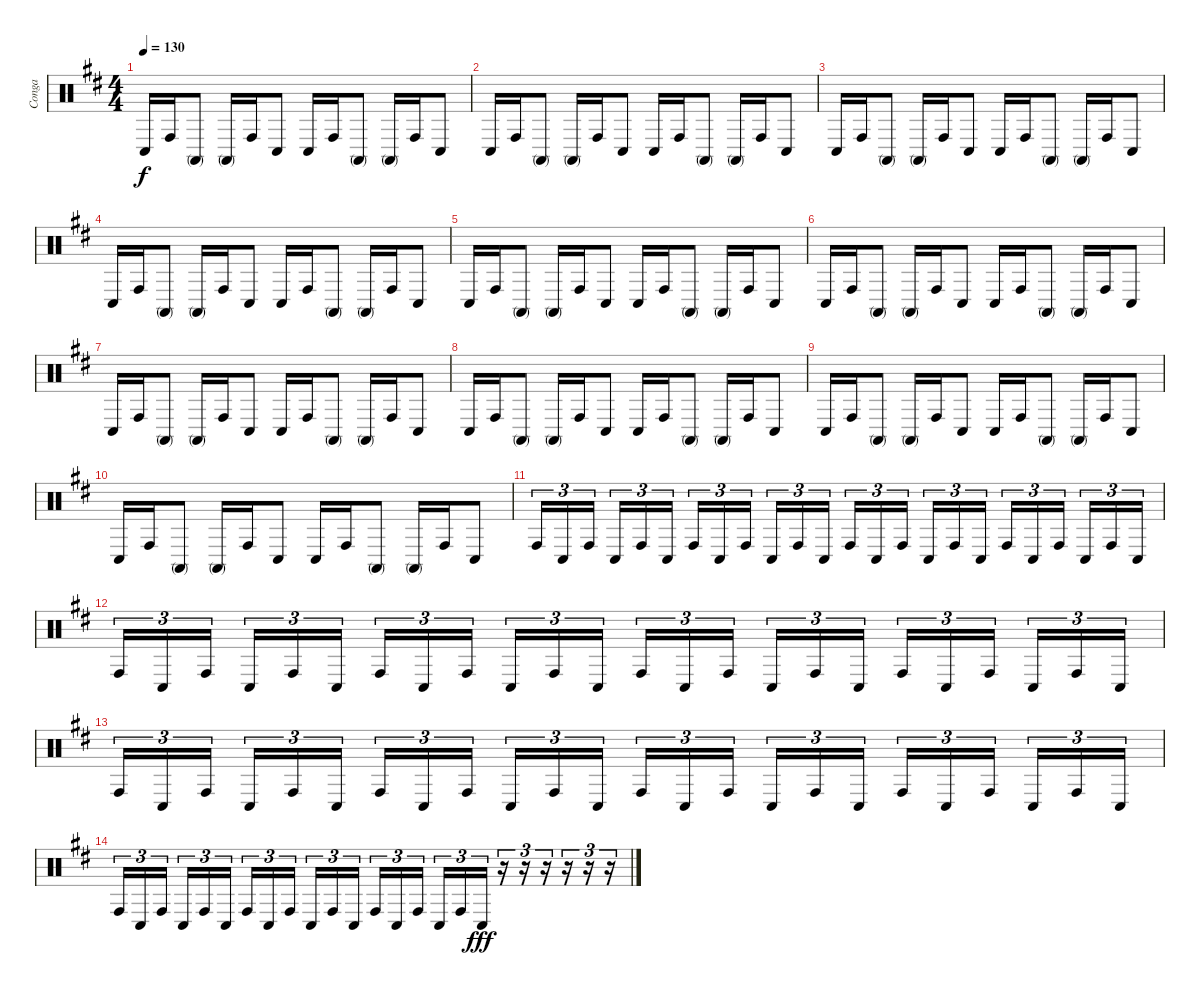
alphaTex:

\track ("Conga" "Conga") {instrument percussion}
\staff {score}
\articulation defaults
\ts (4 4)
\tempo 130
\clef neutral
\ks d "Conga low (hit)".16{dy f} "Conga high (hit)".16 "Conga high (mute)".8 "Conga high (mute)".16 "Conga high (hit)".16 "Conga low (hit)".8 "Conga low (hit)".16 "Conga high (hit)".16 "Conga high (mute)".8 "Conga high (mute)".16 "Conga high (hit)".16 "Conga low (hit)".8
|
"Conga low (hit)".16 "Conga high (hit)".16 "Conga high (mute)".8 "Conga high (mute)".16 "Conga high (hit)".16 "Conga low (hit)".8 "Conga low (hit)".16 "Conga high (hit)".16 "Conga high (mute)".8 "Conga high (mute)".16 "Conga high (hit)".16 "Conga low (hit)".8 |
"Conga low (hit)".16 "Conga high (hit)".16 "Conga high (mute)".8 "Conga high (mute)".16 "Conga high (hit)".16 "Conga low (hit)".8 "Conga low (hit)".16 "Conga high (hit)".16 "Conga high (mute)".8 "Conga high (mute)".16 "Conga high (hit)".16 "Conga low (hit)".8 |
"Conga low (hit)".16 "Conga high (hit)".16 "Conga high (mute)".8 "Conga high (mute)".16 "Conga high (hit)".16 "Conga low (hit)".8 "Conga low (hit)".16 "Conga high (hit)".16 "Conga high (mute)".8 "Conga high (mute)".16 "Conga high (hit)".16 "Conga low (hit)".8 |
"Conga low (hit)".16 "Conga high (hit)".16 "Conga high (mute)".8 "Conga high (mute)".16 "Conga high (hit)".16 "Conga low (hit)".8 "Conga low (hit)".16 "Conga high (hit)".16 "Conga high (mute)".8 "Conga high (mute)".16 "Conga high (hit)".16 "Conga low (hit)".8 |
"Conga low (hit)".16 "Conga high (hit)".16 "Conga high (mute)".8 "Conga high (mute)".16 "Conga high (hit)".16 "Conga low (hit)".8 "Conga low (hit)".16 "Conga high (hit)".16 "Conga high (mute)".8 "Conga high (mute)".16 "Conga high (hit)".16 "Conga low (hit)".8 |
"Conga low (hit)".16 "Conga high (hit)".16 "Conga high (mute)".8 "Conga high (mute)".16 "Conga high (hit)".16 "Conga low (hit)".8 "Conga low (hit)".16 "Conga high (hit)".16 "Conga high (mute)".8 "Conga high (mute)".16 "Conga high (hit)".16 "Conga low (hit)".8 |
"Conga low (hit)".16 "Conga high (hit)".16 "Conga high (mute)".8 "Conga high (mute)".16 "Conga high (hit)".16 "Conga low (hit)".8 "Conga low (hit)".16 "Conga high (hit)".16 "Conga high (mute)".8 "Conga high (mute)".16 "Conga high (hit)".16 "Conga low (hit)".8 |
"Conga low (hit)".16 "Conga high (hit)".16 "Conga high (mute)".8 "Conga high (mute)".16 "Conga high (hit)".16 "Conga low (hit)".8 "Conga low (hit)".16 "Conga high (hit)".16 "Conga high (mute)".8 "Conga high (mute)".16 "Conga high (hit)".16 "Conga low (hit)".8 |
"Conga low (hit)".16 "Conga high (hit)".16 "Conga high (mute)".8 "Conga high (mute)".16 "Conga high (hit)".16 "Conga low (hit)".8 "Conga low (hit)".16 "Conga high (hit)".16 "Conga high (mute)".8 "Conga high (mute)".16 "Conga high (hit)".16 "Conga low (hit)".8 |
"Conga high (hit)".16{tu (3 2)} "Conga low (hit)".16{tu (3 2)} "Conga high (hit)".16{tu (3 2)} "Conga low (hit)".16{tu (3 2)} "Conga high (hit)".16{tu (3 2)} "Conga low (hit)".16{tu (3 2)} "Conga high (hit)".16{tu (3 2)} "Conga low (hit)".16{tu (3 2)} "Conga high (hit)".16{tu (3 2)} "Conga low (hit)".16{tu (3 2)} "Conga high (hit)".16{tu (3 2)} "Conga low (hit)".16{tu (3 2)} "Conga high (hit)".16{tu (3 2)} "Conga low (hit)".16{tu (3 2)} "Conga high (hit)".16{tu (3 2)} "Conga low (hit)".16{tu (3 2)} "Conga high (hit)".16{tu (3 2)} "Conga low (hit)".16{tu (3 2)} "Conga high (hit)".16{tu (3 2)} "Conga low (hit)".16{tu (3 2)} "Conga high (hit)".16{tu (3 2)} "Conga low (hit)".16{tu (3 2)} "Conga high (hit)".16{tu (3 2)} "Conga low (hit)".16{tu (3 2)} |
"Conga high (hit)".16{tu (3 2)} "Conga low (hit)".16{tu (3 2)} "Conga high (hit)".16{tu (3 2)} "Conga low (hit)".16{tu (3 2)} "Conga high (hit)".16{tu (3 2)} "Conga low (hit)".16{tu (3 2)} "Conga high (hit)".16{tu (3 2)} "Conga low (hit)".16{tu (3 2)} "Conga high (hit)".16{tu (3 2)} "Conga low (hit)".16{tu (3 2)} "Conga high (hit)".16{tu (3 2)} "Conga low (hit)".16{tu (3 2)} "Conga high (hit)".16{tu (3 2)} "Conga low (hit)".16{tu (3 2)} "Conga high (hit)".16{tu (3 2)} "Conga low (hit)".16{tu (3 2)} "Conga high (hit)".16{tu (3 2)} "Conga low (hit)".16{tu (3 2)} "Conga high (hit)".16{tu (3 2)} "Conga low (hit)".16{tu (3 2)} "Conga high (hit)".16{tu (3 2)} "Conga low (hit)".16{tu (3 2)} "Conga high (hit)".16{tu (3 2)} "Conga low (hit)".16{tu (3 2)} |
"Conga high (hit)".16{tu (3 2)} "Conga low (hit)".16{tu (3 2)} "Conga high (hit)".16{tu (3 2)} "Conga low (hit)".16{tu (3 2)} "Conga high (hit)".16{tu (3 2)} "Conga low (hit)".16{tu (3 2)} "Conga high (hit)".16{tu (3 2)} "Conga low (hit)".16{tu (3 2)} "Conga high (hit)".16{tu (3 2)} "Conga low (hit)".16{tu (3 2) volume 10} "Conga high (hit)".16{tu (3 2)} "Conga low (hit)".16{tu (3 2)} "Conga high (hit)".16{tu (3 2)} "Conga low (hit)".16{tu (3 2)} "Conga high (hit)".16{tu (3 2)} "Conga low (hit)".16{tu (3 2)} "Conga high (hit)".16{tu (3 2)} "Conga low (hit)".16{tu (3 2)} "Conga high (hit)".16{tu (3 2)} "Conga low (hit)".16{tu (3 2)} "Conga high (hit)".16{tu (3 2)} "Conga low (hit)".16{tu (3 2)} "Conga high (hit)".16{tu (3 2)} "Conga low (hit)".16{tu (3 2)} |
"Conga high (hit)".16{tu (3 2) volume 5} "Conga low (hit)".16{tu (3 2)} "Conga high (hit)".16{tu (3 2)} "Conga low (hit)".16{tu (3 2)} "Conga high (hit)".16{tu (3 2)} "Conga low (hit)".16{tu (3 2)} "Conga high (hit)".16{tu (3 2)} "Conga low (hit)".16{tu (3 2)} "Conga high (hit)".16{tu (3 2)} "Conga low (hit)".16{tu (3 2)} "Conga high (hit)".16{tu (3 2)} "Conga low (hit)".16{tu (3 2)} "Conga high (hit)".16{tu (3 2)} "Conga low (hit)".16{tu (3 2)} "Conga high (hit)".16{tu (3 2)} "Conga low (hit)".16{tu (3 2)} "Conga high (hit)".16{tu (3 2)} "Conga low (hit)".16{tu (3 2) dy fff} r.16{tu (3 2)} r.16{tu (3 2)} r.16{tu (3 2)} r.16{tu (3 2)} r.16{tu (3 2)} r.16{tu (3 2)}
